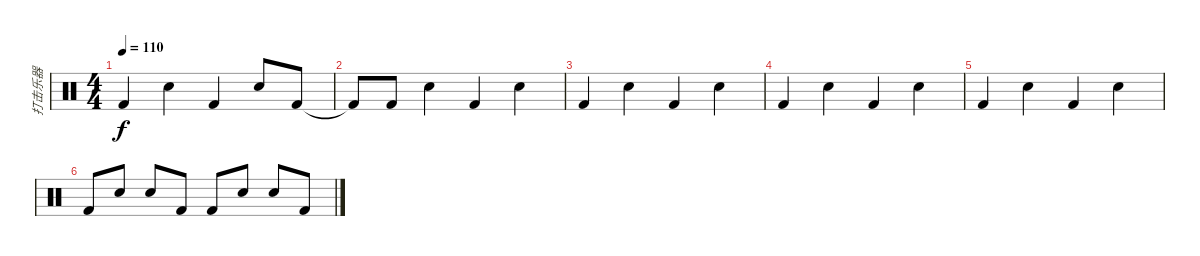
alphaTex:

\track ("打击乐器" "打击乐器") {instrument percussion}
\staff {score}
\articulation defaults
\ts (4 4)
\tempo 110
\clef neutral
\ks c "Kick (hit) 2".4{dy f} "Snare (hit) 2".4 "Kick (hit) 2".4 "Snare (hit) 2".8 "Kick (hit) 2".8
|
"Kick (hit) 2"{t}.8 "Kick (hit) 2".8 "Snare (hit) 2".4 "Kick (hit) 2".4 "Snare (hit) 2".4 |
"Kick (hit) 2".4 "Snare (hit) 2".4 "Kick (hit) 2".4 "Snare (hit) 2".4 |
"Kick (hit) 2".4 "Snare (hit) 2".4 "Kick (hit) 2".4 "Snare (hit) 2".4 |
"Kick (hit) 2".4 "Snare (hit) 2".4 "Kick (hit) 2".4 "Snare (hit) 2".4 |
"Kick (hit) 2".8 "Snare (hit) 2".8 "Snare (hit) 2".8 "Kick (hit) 2".8 "Kick (hit) 2".8 "Snare (hit) 2".8 "Snare (hit) 2".8 "Kick (hit) 2".8
